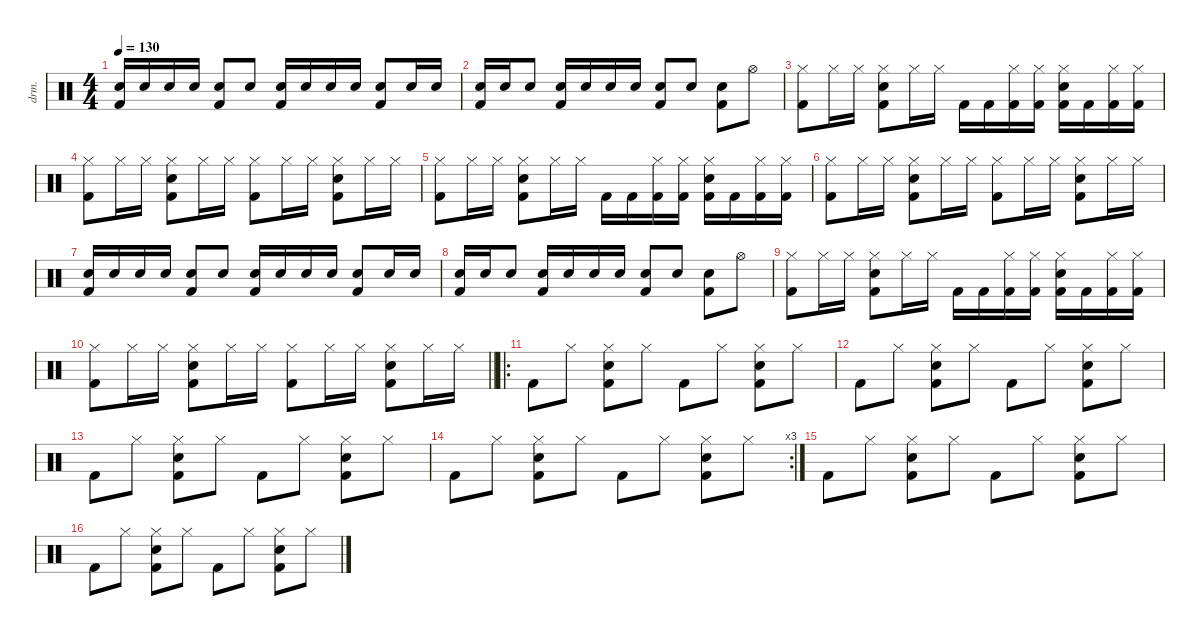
\defaultSystemsLayout 4
\hideDynamics
\bracketExtendMode nobrackets
\otherSystemsTrackNameOrientation horizontal
\track ("Percussion" "drm.") {defaultSystemsLayout 4 instrument percussion}
\staff {score}
\articulation defaults
\ts (4 4)
\tempo 130
\clef neutral
\ks c
("Snare (hit) 2" "Kick (hit) 2").16{dy f beam Up} "Snare (hit) 2".16{beam Up} "Snare (hit) 2".16{beam Up} "Snare (hit) 2".16{beam Up} ("Snare (hit) 2" "Kick (hit) 2").8{beam Up} "Snare (hit) 2".8{beam Up} ("Snare (hit) 2" "Kick (hit) 2").16{beam Up} "Snare (hit) 2".16{beam Up} "Snare (hit) 2".16{beam Up} "Snare (hit) 2".16{beam Up} ("Snare (hit) 2" "Kick (hit) 2").8{beam Up} "Snare (hit) 2".16{beam Up} "Snare (hit) 2".16{beam Up} |
("Snare (hit) 2" "Kick (hit) 2").16{beam Up} "Snare (hit) 2".16{beam Up} "Snare (hit) 2".8{beam Up} ("Snare (hit) 2" "Kick (hit) 2").16{beam Up} "Snare (hit) 2".16{beam Up} "Snare (hit) 2".16{beam Up} "Snare (hit) 2".16{beam Up} ("Snare (hit) 2" "Kick (hit) 2").8{beam Up} "Hand Clap (hit)".8{beam Up} ("Hand Clap (hit)" "Kick (hit) 2").8{beam Down} "Hi-Hat (open)".8{beam Down} |
("Hi-Hat (closed)" "Kick (hit) 2").8{beam Down} "Hi-Hat (closed)".16{beam Down} "Hi-Hat (closed)".16{beam Down} ("Hi-Hat (closed)" "Snare (hit) 2" "Kick (hit) 2").8{beam Down} "Hi-Hat (closed)".16{beam Down} "Hi-Hat (closed)".16{beam Down} "Kick (hit) 2".16{beam Down} "Kick (hit) 2".16{beam Down} ("Hi-Hat (closed)" "Kick (hit) 2").16{beam Down} ("Hi-Hat (closed)" "Kick (hit) 2").16{beam Down} ("Hi-Hat (closed)" "Snare (hit) 2" "Kick (hit) 2").16{beam Down} "Kick (hit) 2".16{beam Down} ("Hi-Hat (closed)" "Kick (hit) 2").16{beam Down} ("Hi-Hat (closed)" "Kick (hit) 2").16{beam Down} |
("Hi-Hat (closed)" "Kick (hit) 2").8{beam Down} "Hi-Hat (closed)".16{beam Down} "Hi-Hat (closed)".16{beam Down} ("Hi-Hat (closed)" "Snare (hit) 2" "Kick (hit) 2").8{beam Down} "Hi-Hat (closed)".16{beam Down} "Hi-Hat (closed)".16{beam Down} ("Hi-Hat (closed)" "Kick (hit) 2").8{beam Down} "Hi-Hat (closed)".16{beam Down} "Hi-Hat (closed)".16{beam Down} ("Hi-Hat (closed)" "Snare (hit) 2" "Kick (hit) 2").8{beam Down} "Hi-Hat (closed)".16{beam Down} "Hi-Hat (closed)".16{beam Down} |
("Hi-Hat (closed)" "Kick (hit) 2").8{beam Down} "Hi-Hat (closed)".16{beam Down} "Hi-Hat (closed)".16{beam Down} ("Hi-Hat (closed)" "Snare (hit) 2" "Kick (hit) 2").8{beam Down} "Hi-Hat (closed)".16{beam Down} "Hi-Hat (closed)".16{beam Down} "Kick (hit) 2".16{beam Down} "Kick (hit) 2".16{beam Down} ("Hi-Hat (closed)" "Kick (hit) 2").16{beam Down} ("Hi-Hat (closed)" "Kick (hit) 2").16{beam Down} ("Hi-Hat (closed)" "Snare (hit) 2" "Kick (hit) 2").16{beam Down} "Kick (hit) 2".16{beam Down} ("Hi-Hat (closed)" "Kick (hit) 2").16{beam Down} ("Hi-Hat (closed)" "Kick (hit) 2").16{beam Down} |
("Hi-Hat (closed)" "Kick (hit) 2").8{beam Down} "Hi-Hat (closed)".16{beam Down} "Hi-Hat (closed)".16{beam Down} ("Hi-Hat (closed)" "Snare (hit) 2" "Kick (hit) 2").8{beam Down} "Hi-Hat (closed)".16{beam Down} "Hi-Hat (closed)".16{beam Down} ("Hi-Hat (closed)" "Kick (hit) 2").8{beam Down} "Hi-Hat (closed)".16{beam Down} "Hi-Hat (closed)".16{beam Down} ("Hi-Hat (closed)" "Snare (hit) 2" "Kick (hit) 2").8{beam Down} "Hi-Hat (closed)".16{beam Down} "Hi-Hat (closed)".16{beam Down} |
("Snare (hit) 2" "Kick (hit) 2").16{beam Up} "Snare (hit) 2".16{beam Up} "Snare (hit) 2".16{beam Up} "Snare (hit) 2".16{beam Up} ("Snare (hit) 2" "Kick (hit) 2").8{beam Up} "Snare (hit) 2".8{beam Up} ("Snare (hit) 2" "Kick (hit) 2").16{beam Up} "Snare (hit) 2".16{beam Up} "Snare (hit) 2".16{beam Up} "Snare (hit) 2".16{beam Up} ("Snare (hit) 2" "Kick (hit) 2").8{beam Up} "Snare (hit) 2".16{beam Up} "Snare (hit) 2".16{beam Up} |
("Snare (hit) 2" "Kick (hit) 2").16{beam Up} "Snare (hit) 2".16{beam Up} "Snare (hit) 2".8{beam Up} ("Snare (hit) 2" "Kick (hit) 2").16{beam Up} "Snare (hit) 2".16{beam Up} "Snare (hit) 2".16{beam Up} "Snare (hit) 2".16{beam Up} ("Snare (hit) 2" "Kick (hit) 2").8{beam Up} "Hand Clap (hit)".8{beam Up} ("Hand Clap (hit)" "Kick (hit) 2").8{beam Down} "Hi-Hat (open)".8{beam Down} |
("Hi-Hat (closed)" "Kick (hit) 2").8{beam Down} "Hi-Hat (closed)".16{beam Down} "Hi-Hat (closed)".16{beam Down} ("Hi-Hat (closed)" "Snare (hit) 2" "Kick (hit) 2").8{beam Down} "Hi-Hat (closed)".16{beam Down} "Hi-Hat (closed)".16{beam Down} "Kick (hit) 2".16{beam Down} "Kick (hit) 2".16{beam Down} ("Hi-Hat (closed)" "Kick (hit) 2").16{beam Down} ("Hi-Hat (closed)" "Kick (hit) 2").16{beam Down} ("Hi-Hat (closed)" "Snare (hit) 2" "Kick (hit) 2").16{beam Down} "Kick (hit) 2".16{beam Down} ("Hi-Hat (closed)" "Kick (hit) 2").16{beam Down} ("Hi-Hat (closed)" "Kick (hit) 2").16{beam Down} |
\barLineRight lightlight
("Hi-Hat (closed)" "Kick (hit) 2").8{beam Down} "Hi-Hat (closed)".16{beam Down} "Hi-Hat (closed)".16{beam Down} ("Hi-Hat (closed)" "Snare (hit) 2" "Kick (hit) 2").8{beam Down} "Hi-Hat (closed)".16{beam Down} "Hi-Hat (closed)".16{beam Down} ("Hi-Hat (closed)" "Kick (hit) 2").8{beam Down} "Hi-Hat (closed)".16{beam Down} "Hi-Hat (closed)".16{beam Down} ("Hi-Hat (closed)" "Snare (hit) 2" "Kick (hit) 2").8{beam Down} "Hi-Hat (closed)".16{beam Down} "Hi-Hat (closed)".16{beam Down} |
\ro "Kick (hit) 2".8{beam Down} "Hi-Hat (closed)".8{beam Down}
("Hi-Hat (closed)" "Snare (hit) 2" "Kick (hit) 2").8{beam Down} "Hi-Hat (closed)".8{beam Down} "Kick (hit) 2".8{beam Down} "Hi-Hat (closed)".8{beam Down} ("Hi-Hat (closed)" "Snare (hit) 2" "Kick (hit) 2").8{beam Down} "Hi-Hat (closed)".8{beam Down} |
"Kick (hit) 2".8{beam Down} "Hi-Hat (closed)".8{beam Down} ("Hi-Hat (closed)" "Snare (hit) 2" "Kick (hit) 2").8{beam Down} "Hi-Hat (closed)".8{beam Down} "Kick (hit) 2".8{beam Down} "Hi-Hat (closed)".8{beam Down} ("Hi-Hat (closed)" "Snare (hit) 2" "Kick (hit) 2").8{beam Down} "Hi-Hat (closed)".8{beam Down} |
"Kick (hit) 2".8{beam Down} "Hi-Hat (closed)".8{beam Down} ("Hi-Hat (closed)" "Snare (hit) 2" "Kick (hit) 2").8{beam Down} "Hi-Hat (closed)".8{beam Down} "Kick (hit) 2".8{beam Down} "Hi-Hat (closed)".8{beam Down} ("Hi-Hat (closed)" "Snare (hit) 2" "Kick (hit) 2").8{beam Down} "Hi-Hat (closed)".8{beam Down} |
\rc 3 "Kick (hit) 2".8{beam Down} "Hi-Hat (closed)".8{beam Down}
("Hi-Hat (closed)" "Snare (hit) 2" "Kick (hit) 2").8{beam Down} "Hi-Hat (closed)".8{beam Down} "Kick (hit) 2".8{beam Down} "Hi-Hat (closed)".8{beam Down} ("Hi-Hat (closed)" "Snare (hit) 2" "Kick (hit) 2").8{beam Down} "Hi-Hat (closed)".8{beam Down} |
"Kick (hit) 2".8{beam Down} "Hi-Hat (closed)".8{beam Down} ("Hi-Hat (closed)" "Snare (hit) 2" "Kick (hit) 2").8{beam Down} "Hi-Hat (closed)".8{beam Down} "Kick (hit) 2".8{beam Down} "Hi-Hat (closed)".8{beam Down} ("Hi-Hat (closed)" "Snare (hit) 2" "Kick (hit) 2").8{beam Down} "Hi-Hat (closed)".8{beam Down} |
"Kick (hit) 2".8{beam Down} "Hi-Hat (closed)".8{beam Down} ("Hi-Hat (closed)" "Snare (hit) 2" "Kick (hit) 2").8{beam Down} "Hi-Hat (closed)".8{beam Down} "Kick (hit) 2".8{beam Down} "Hi-Hat (closed)".8{beam Down} ("Hi-Hat (closed)" "Snare (hit) 2" "Kick (hit) 2").8{beam Down} "Hi-Hat (closed)".8{beam Down}
